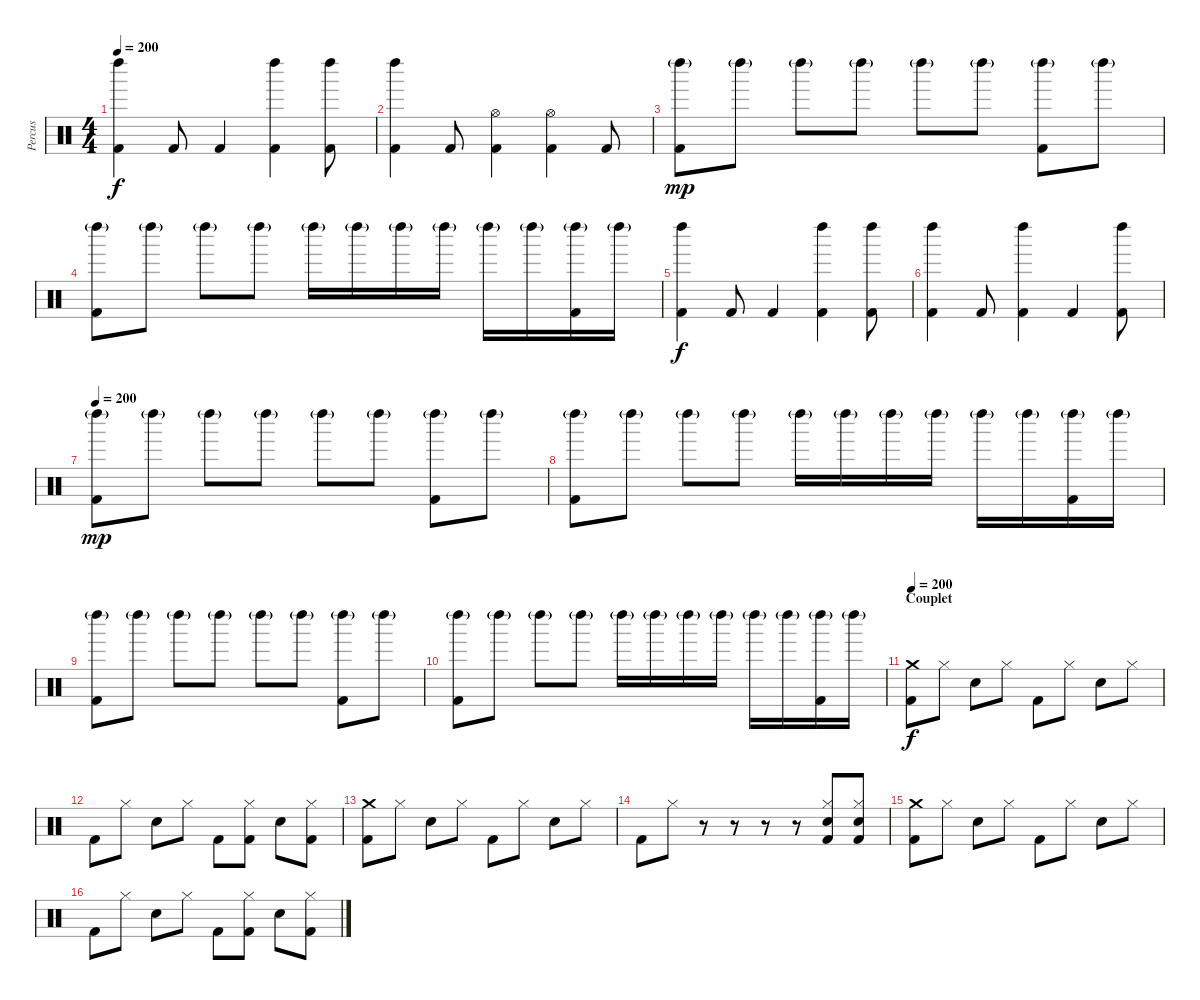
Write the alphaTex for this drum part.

\track ("Percus" "Percus") {instrument percussion}
\staff {score}
\articulation defaults
\ts (4 4)
\tempo 200
\clef neutral
\ks c
("Left Maraca (hit)" "Kick (hit) 2").4{dy f} "Kick (hit) 2".8 "Kick (hit) 2".4 ("Left Maraca (hit)" "Kick (hit) 2").4 ("Left Maraca (hit)" "Kick (hit) 2").8 |
("Left Maraca (hit)" "Kick (hit) 2").4 "Kick (hit) 2".8 ("Hi-Hat (open)" "Kick (hit) 2").4 ("Hi-Hat (open)" "Kick (hit) 2").4 "Kick (hit) 2".8 |
("Left Maraca (hit)"{g} "Kick (hit) 2").8{dy mp} "Left Maraca (hit)"{g}.8 "Left Maraca (hit)"{g}.8 "Left Maraca (hit)"{g}.8 "Left Maraca (hit)"{g}.8 "Left Maraca (hit)"{g}.8 ("Left Maraca (hit)"{g} "Kick (hit) 2").8 "Left Maraca (hit)"{g}.8 |
("Left Maraca (hit)"{g} "Kick (hit) 2").8 "Left Maraca (hit)"{g}.8 "Left Maraca (hit)"{g}.8 "Left Maraca (hit)"{g}.8 "Left Maraca (hit)"{g}.16 "Left Maraca (hit)"{g}.16 "Left Maraca (hit)"{g}.16 "Left Maraca (hit)"{g}.16 "Left Maraca (hit)"{g}.16 "Left Maraca (hit)"{g}.16 ("Left Maraca (hit)"{g} "Kick (hit) 2").16 "Left Maraca (hit)"{g}.16 |
("Left Maraca (hit)" "Kick (hit) 2").4{dy f} "Kick (hit) 2".8 "Kick (hit) 2".4 ("Left Maraca (hit)" "Kick (hit) 2").4 ("Left Maraca (hit)" "Kick (hit) 2").8 |
("Left Maraca (hit)" "Kick (hit) 2").4 "Kick (hit) 2".8 ("Left Maraca (hit)" "Kick (hit) 2").4 "Kick (hit) 2".4 ("Left Maraca (hit)" "Kick (hit) 2").8 |
\tempo 200
("Left Maraca (hit)"{g} "Kick (hit) 2").8{dy mp} "Left Maraca (hit)"{g}.8 "Left Maraca (hit)"{g}.8 "Left Maraca (hit)"{g}.8 "Left Maraca (hit)"{g}.8 "Left Maraca (hit)"{g}.8 ("Left Maraca (hit)"{g} "Kick (hit) 2").8 "Left Maraca (hit)"{g}.8 |
("Left Maraca (hit)"{g} "Kick (hit) 2").8 "Left Maraca (hit)"{g}.8 "Left Maraca (hit)"{g}.8 "Left Maraca (hit)"{g}.8 "Left Maraca (hit)"{g}.16 "Left Maraca (hit)"{g}.16 "Left Maraca (hit)"{g}.16 "Left Maraca (hit)"{g}.16 "Left Maraca (hit)"{g}.16 "Left Maraca (hit)"{g}.16 ("Left Maraca (hit)"{g} "Kick (hit) 2").16 "Left Maraca (hit)"{g}.16 |
("Left Maraca (hit)"{g} "Kick (hit) 2").8 "Left Maraca (hit)"{g}.8 "Left Maraca (hit)"{g}.8 "Left Maraca (hit)"{g}.8 "Left Maraca (hit)"{g}.8 "Left Maraca (hit)"{g}.8 ("Left Maraca (hit)"{g} "Kick (hit) 2").8 "Left Maraca (hit)"{g}.8 |
("Left Maraca (hit)"{g} "Kick (hit) 2").8 "Left Maraca (hit)"{g}.8 "Left Maraca (hit)"{g}.8 "Left Maraca (hit)"{g}.8 "Left Maraca (hit)"{g}.16 "Left Maraca (hit)"{g}.16 "Left Maraca (hit)"{g}.16 "Left Maraca (hit)"{g}.16 "Left Maraca (hit)"{g}.16 "Left Maraca (hit)"{g}.16 ("Left Maraca (hit)"{g} "Kick (hit) 2").16 "Left Maraca (hit)"{g}.16 |
\section ("" "Couplet")
\tempo 200
("Crash medium (hit)" "Kick (hit) 2").8{dy f} "Hi-Hat (closed)".8 "Snare (hit) 2".8 "Hi-Hat (closed)".8 "Kick (hit) 2".8 "Hi-Hat (closed)".8 "Snare (hit) 2".8 "Hi-Hat (closed)".8 |
"Kick (hit) 2".8 "Hi-Hat (closed)".8 "Snare (hit) 2".8 "Hi-Hat (closed)".8 "Kick (hit) 2".8 ("Hi-Hat (closed)" "Kick (hit) 2").8 "Snare (hit) 2".8 ("Hi-Hat (closed)" "Kick (hit) 2").8 |
("Crash medium (hit)" "Kick (hit) 2").8 "Hi-Hat (closed)".8 "Snare (hit) 2".8 "Hi-Hat (closed)".8 "Kick (hit) 2".8 "Hi-Hat (closed)".8 "Snare (hit) 2".8 "Hi-Hat (closed)".8 |
"Kick (hit) 2".8 "Hi-Hat (closed)".8 r.8 r.8 r.8 r.8 ("Hi-Hat (closed)" "Snare (hit) 2" "Kick (hit) 2").8 ("Hi-Hat (closed)" "Snare (hit) 2" "Kick (hit) 2").8 |
("Crash medium (hit)" "Kick (hit) 2").8 "Hi-Hat (closed)".8 "Snare (hit) 2".8 "Hi-Hat (closed)".8 "Kick (hit) 2".8 "Hi-Hat (closed)".8 "Snare (hit) 2".8 "Hi-Hat (closed)".8 |
"Kick (hit) 2".8 "Hi-Hat (closed)".8 "Snare (hit) 2".8 "Hi-Hat (closed)".8 "Kick (hit) 2".8 ("Hi-Hat (closed)" "Kick (hit) 2").8 "Snare (hit) 2".8 ("Hi-Hat (closed)" "Kick (hit) 2").8
